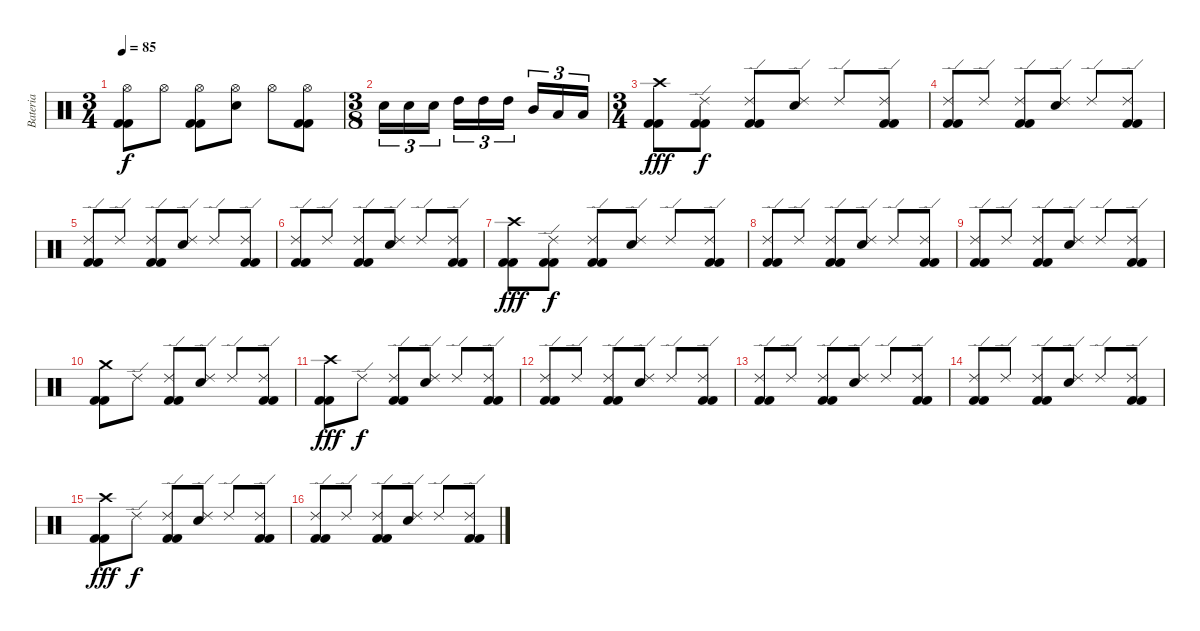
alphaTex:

\track ("Bateria" "Bateria") {instrument percussion}
\staff {score}
\articulation defaults
\ts (3 4)
\tempo 85
\clef neutral
\ks c
("Hi-Hat (open)" "Kick (hit) 2" "Kick (hit) 2").8{dy f} "Hi-Hat (open)".8 ("Hi-Hat (open)" "Kick (hit) 2" "Kick (hit) 2").8 ("Hi-Hat (open)" "Electric Snare (hit)").8 "Hi-Hat (open)".8 ("Hi-Hat (open)" "Kick (hit) 2" "Kick (hit) 2").8 |
\ts (3 8)
"Electric Snare (hit)".16{tu (3 2)} "Electric Snare (hit)".16{tu (3 2)} "Electric Snare (hit)".16{tu (3 2)} "High Tom (hit)".16{tu (3 2)} "High Tom (hit)".16{tu (3 2)} "High Tom (hit)".16{tu (3 2)} "Mid Tom (hit)".16{tu (3 2)} "Low Tom (hit)".16{tu (3 2)} "Low Tom (hit)".16{tu (3 2)} |
\ts (3 4)
("Crash high (hit)" "Kick (hit) 2" "Kick (hit) 2").8{dy fff} ("Ride (edge) 2" "Kick (hit) 2" "Kick (hit) 2").8{dy f} ("Ride (edge) 2" "Kick (hit) 2" "Kick (hit) 2").8 ("Ride (edge) 2" "Electric Snare (hit)").8 "Ride (edge) 2".8 ("Ride (edge) 2" "Kick (hit) 2" "Kick (hit) 2").8 |
("Ride (edge) 2" "Kick (hit) 2" "Kick (hit) 2").8 "Ride (edge) 2".8 ("Ride (edge) 2" "Kick (hit) 2" "Kick (hit) 2").8 ("Ride (edge) 2" "Electric Snare (hit)").8 "Ride (edge) 2".8 ("Ride (edge) 2" "Kick (hit) 2" "Kick (hit) 2").8 |
("Ride (edge) 2" "Kick (hit) 2" "Kick (hit) 2").8 "Ride (edge) 2".8 ("Ride (edge) 2" "Kick (hit) 2" "Kick (hit) 2").8 ("Ride (edge) 2" "Electric Snare (hit)").8 "Ride (edge) 2".8 ("Ride (edge) 2" "Kick (hit) 2" "Kick (hit) 2").8 |
("Ride (edge) 2" "Kick (hit) 2" "Kick (hit) 2").8 "Ride (edge) 2".8 ("Ride (edge) 2" "Kick (hit) 2" "Kick (hit) 2").8 ("Ride (edge) 2" "Electric Snare (hit)").8 "Ride (edge) 2".8 ("Ride (edge) 2" "Kick (hit) 2" "Kick (hit) 2").8 |
("Crash high (hit)" "Kick (hit) 2" "Kick (hit) 2").8{dy fff} ("Ride (edge) 2" "Kick (hit) 2" "Kick (hit) 2").8{dy f} ("Ride (edge) 2" "Kick (hit) 2" "Kick (hit) 2").8 ("Ride (edge) 2" "Electric Snare (hit)").8 "Ride (edge) 2".8 ("Ride (edge) 2" "Kick (hit) 2" "Kick (hit) 2").8 |
("Ride (edge) 2" "Kick (hit) 2" "Kick (hit) 2").8 "Ride (edge) 2".8 ("Ride (edge) 2" "Kick (hit) 2" "Kick (hit) 2").8 ("Ride (edge) 2" "Electric Snare (hit)").8 "Ride (edge) 2".8 ("Ride (edge) 2" "Kick (hit) 2" "Kick (hit) 2").8 |
("Ride (edge) 2" "Kick (hit) 2" "Kick (hit) 2").8 "Ride (edge) 2".8 ("Ride (edge) 2" "Kick (hit) 2" "Kick (hit) 2").8 ("Ride (edge) 2" "Electric Snare (hit)").8 "Ride (edge) 2".8 ("Ride (edge) 2" "Kick (hit) 2" "Kick (hit) 2").8 |
("Crash medium (hit)" "Kick (hit) 2" "Kick (hit) 2").8 "Ride (edge) 2".8 ("Ride (edge) 2" "Kick (hit) 2" "Kick (hit) 2").8 ("Ride (edge) 2" "Electric Snare (hit)").8 "Ride (edge) 2".8 ("Ride (edge) 2" "Kick (hit) 2" "Kick (hit) 2").8 |
("Crash high (hit)" "Kick (hit) 2" "Kick (hit) 2").8{dy fff} "Ride (edge) 2".8{dy f} ("Ride (edge) 2" "Kick (hit) 2" "Kick (hit) 2").8 ("Ride (edge) 2" "Electric Snare (hit)").8 "Ride (edge) 2".8 ("Ride (edge) 2" "Kick (hit) 2" "Kick (hit) 2").8 |
("Ride (edge) 2" "Kick (hit) 2" "Kick (hit) 2").8 "Ride (edge) 2".8 ("Ride (edge) 2" "Kick (hit) 2" "Kick (hit) 2").8 ("Ride (edge) 2" "Electric Snare (hit)").8 "Ride (edge) 2".8 ("Ride (edge) 2" "Kick (hit) 2" "Kick (hit) 2").8 |
("Ride (edge) 2" "Kick (hit) 2" "Kick (hit) 2").8 "Ride (edge) 2".8 ("Ride (edge) 2" "Kick (hit) 2" "Kick (hit) 2").8 ("Ride (edge) 2" "Electric Snare (hit)").8 "Ride (edge) 2".8 ("Ride (edge) 2" "Kick (hit) 2" "Kick (hit) 2").8 |
("Ride (edge) 2" "Kick (hit) 2" "Kick (hit) 2").8 "Ride (edge) 2".8 ("Ride (edge) 2" "Kick (hit) 2" "Kick (hit) 2").8 ("Ride (edge) 2" "Electric Snare (hit)").8 "Ride (edge) 2".8 ("Ride (edge) 2" "Kick (hit) 2" "Kick (hit) 2").8 |
("Crash high (hit)" "Kick (hit) 2" "Kick (hit) 2").8{dy fff} "Ride (edge) 2".8{dy f} ("Ride (edge) 2" "Kick (hit) 2" "Kick (hit) 2").8 ("Ride (edge) 2" "Electric Snare (hit)").8 "Ride (edge) 2".8 ("Ride (edge) 2" "Kick (hit) 2" "Kick (hit) 2").8 |
("Ride (edge) 2" "Kick (hit) 2" "Kick (hit) 2").8 "Ride (edge) 2".8 ("Ride (edge) 2" "Kick (hit) 2" "Kick (hit) 2").8 ("Ride (edge) 2" "Electric Snare (hit)").8 "Ride (edge) 2".8 ("Ride (edge) 2" "Kick (hit) 2" "Kick (hit) 2").8
